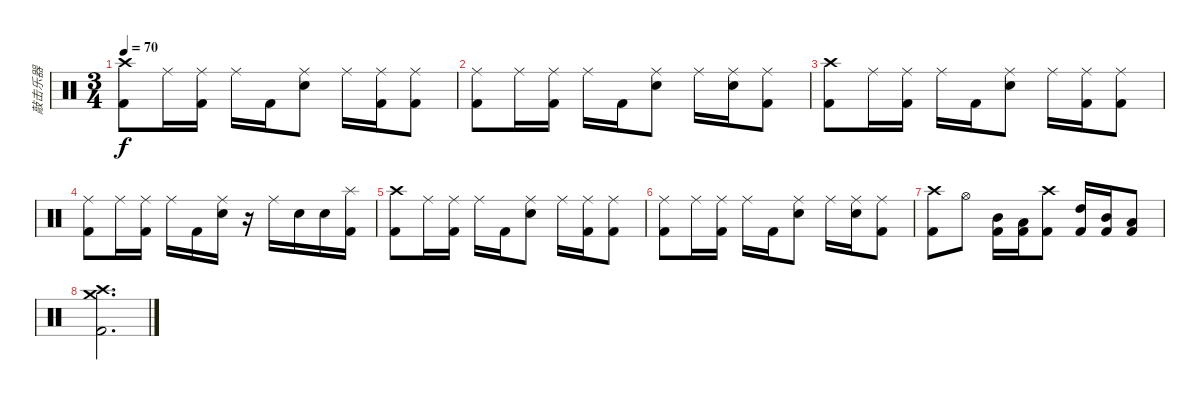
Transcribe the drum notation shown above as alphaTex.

\track ("敲击乐器" "敲击乐器") {instrument percussion}
\staff {score}
\articulation defaults
\ts (3 4)
\tempo 70
\clef neutral
\ks c
("Crash high (hit)" "Kick (hit) 2").8{dy f} "Ride (middle)".16 ("Ride (middle)" "Kick (hit) 2").16 "Ride (middle)".16 "Kick (hit) 2".16 ("Ride (middle)" "Snare (hit) 2").8 "Ride (middle)".16 ("Kick (hit) 2" "Ride (middle)").16 ("Kick (hit) 2" "Ride (middle)").8 |
("Ride (middle)" "Kick (hit) 2").8 "Ride (middle)".16 ("Ride (middle)" "Kick (hit) 2").16 "Ride (middle)".16 "Kick (hit) 2".16 ("Snare (hit) 2" "Ride (middle)").8 "Ride (middle)".16 ("Snare (hit) 2" "Ride (middle)").16 ("Kick (hit) 2" "Ride (middle)").8 |
("Crash high (hit)" "Kick (hit) 2").8 "Ride (middle)".16 ("Ride (middle)" "Kick (hit) 2").16 "Ride (middle)".16 "Kick (hit) 2".16 ("Snare (hit) 2" "Ride (middle)").8 "Ride (middle)".16 ("Kick (hit) 2" "Ride (middle)").16 ("Kick (hit) 2" "Ride (middle)").8 |
("Ride (middle)" "Kick (hit) 2").8 "Ride (middle)".16 ("Ride (middle)" "Kick (hit) 2").16 "Ride (middle)".16 "Kick (hit) 2".16 ("Ride (middle)" "Snare (hit) 2").16 r.16 "Ride (middle)".16 "Snare (hit) 2".16 "Snare (hit) 2".16 ("Kick (hit) 2" "Splash (hit)").16 |
("Crash high (hit)" "Kick (hit) 2").8 "Ride (middle)".16 ("Ride (middle)" "Kick (hit) 2").16 "Ride (middle)".16 "Kick (hit) 2".16 ("Ride (middle)" "Snare (hit) 2").8 "Ride (middle)".16 ("Kick (hit) 2" "Ride (middle)").16 ("Kick (hit) 2" "Ride (middle)").8 |
("Ride (middle)" "Kick (hit) 2").8 "Ride (middle)".16 ("Ride (middle)" "Kick (hit) 2").16 "Ride (middle)".16 "Kick (hit) 2".16 ("Snare (hit) 2" "Ride (middle)").8 "Ride (middle)".16 ("Snare (hit) 2" "Ride (middle)").16 ("Kick (hit) 2" "Ride (middle)").8 |
("Crash high (hit)" "Kick (hit) 2").8 "Hi-Hat (open)".8 ("Mid Tom (hit)" "Kick (hit) 2").16 ("Low Tom (hit)" "Kick (hit) 2").16 ("Crash high (hit)" "Kick (hit) 2").8 ("High Tom (hit)" "Kick (hit) 2").16 ("Mid Tom (hit)" "Kick (hit) 2").16 ("Low Floor Tom (hit)" "Kick (hit) 2").8 |
("Kick (hit) 2" "Crash high (hit)" "Crash medium (hit)").2{d}
